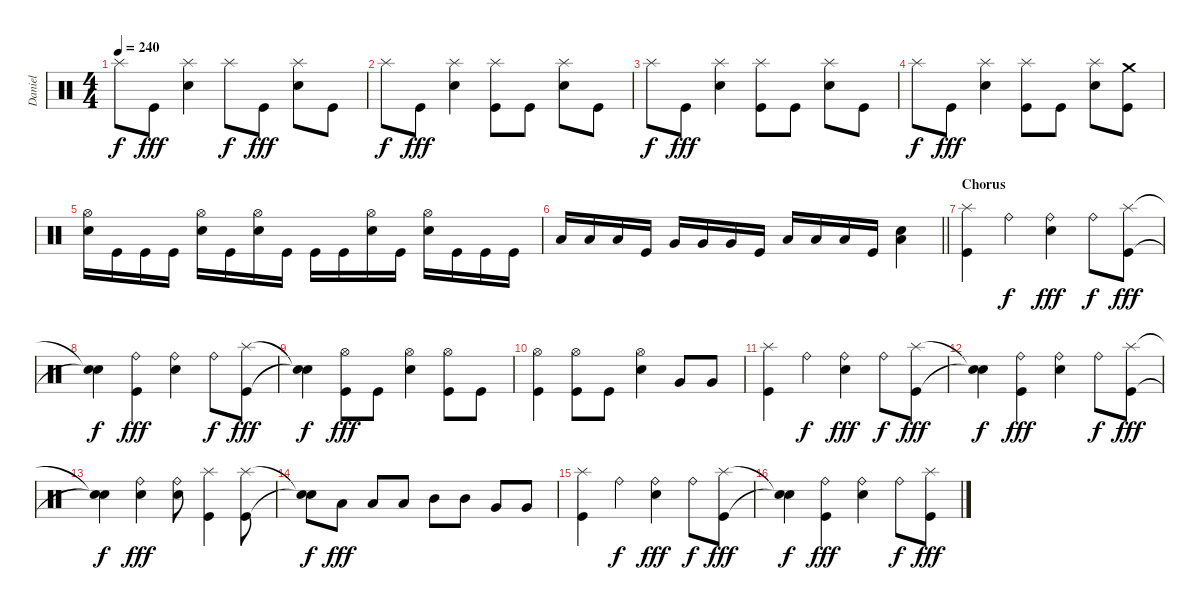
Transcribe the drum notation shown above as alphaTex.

\track ("Daniel" "Daniel") {instrument percussion}
\staff {score}
\articulation defaults
\ts (4 4)
\tempo 240
\clef neutral
\ks c "Splash (hit)".8{dy f} "Kick (hit)".8{dy fff}
("Electric Snare (hit)" "Splash (hit)").4 "Splash (hit)".8{dy f} "Kick (hit)".8{dy fff} ("Electric Snare (hit)" "Splash (hit)").8 "Kick (hit)".8 |
"Splash (hit)".8{dy f} "Kick (hit)".8{dy fff} ("Electric Snare (hit)" "Splash (hit)").4 ("Kick (hit)" "Splash (hit)").8 "Kick (hit)".8 ("Electric Snare (hit)" "Splash (hit)").8 "Kick (hit)".8 |
"Splash (hit)".8{dy f} "Kick (hit)".8{dy fff} ("Electric Snare (hit)" "Splash (hit)").4 ("Kick (hit)" "Splash (hit)").8 "Kick (hit)".8 ("Electric Snare (hit)" "Splash (hit)").8 "Kick (hit)".8 |
"Splash (hit)".8{dy f} "Kick (hit)".8{dy fff} ("Electric Snare (hit)" "Splash (hit)").4 ("Kick (hit)" "Splash (hit)").8 "Kick (hit)".8 ("Electric Snare (hit)" "Splash (hit)").8 ("Kick (hit)" "Crash medium (hit)").8 |
("Electric Snare (hit)" "Hi-Hat (open)").16 "Kick (hit)".16 "Kick (hit)".16 "Kick (hit)".16 ("Electric Snare (hit)" "Hi-Hat (open)").16 "Kick (hit)".16 ("Electric Snare (hit)" "Hi-Hat (open)").16 "Kick (hit)".16 "Kick (hit)".16 "Kick (hit)".16 ("Electric Snare (hit)" "Hi-Hat (open)").16 "Kick (hit)".16 ("Electric Snare (hit)" "Hi-Hat (open)").16 "Kick (hit)".16 "Kick (hit)".16 "Kick (hit)".16 |
\barLineRight lightlight "Low Tom (hit)".16 "Low Tom (hit)".16 "Low Tom (hit)".16 "Kick (hit)".16 "Very Low Tom (hit)".16 "Very Low Tom (hit)".16 "Very Low Tom (hit)".16 "Kick (hit)".16 "Low Floor Tom (hit)".16 "Low Floor Tom (hit)".16 "Low Floor Tom (hit)".16 "Kick (hit)".16
("Electric Snare (hit)" "Low Floor Tom (hit)").4 |
\section ("" "Chorus")
("Kick (hit)" "Splash (hit)").4 "Ride (bell)".4{dy f} ("Electric Snare (hit)" "Ride (bell)").4{dy fff} "Ride (bell)".8{dy f} ("Kick (hit)" "Splash (hit)").8{dy fff} |
("Snare (hit)"{t} "Snare (hit)"{t}).4{dy f} ("Kick (hit)" "Ride (bell)").4{dy fff} ("Electric Snare (hit)" "Ride (bell)").4 "Ride (bell)".8{dy f} ("Kick (hit)" "Splash (hit)").8{dy fff} |
("Snare (hit)"{t} "Snare (hit)"{t}).4{dy f} ("Kick (hit)" "Hi-Hat (open)").8{dy fff} "Kick (hit)".8 ("Electric Snare (hit)" "Hi-Hat (open)").4 ("Kick (hit)" "Hi-Hat (open)").8 "Kick (hit)".8 |
("Kick (hit)" "Hi-Hat (open)").4 ("Kick (hit)" "Hi-Hat (open)").8 "Kick (hit)".8 ("Electric Snare (hit)" "Hi-Hat (open)").4 "Very Low Tom (hit)".8 "Very Low Tom (hit)".8 |
("Kick (hit)" "Splash (hit)").4 "Ride (bell)".4{dy f} ("Electric Snare (hit)" "Ride (bell)").4{dy fff} "Ride (bell)".8{dy f} ("Kick (hit)" "Splash (hit)").8{dy fff} |
("Snare (hit)"{t} "Snare (hit)"{t}).4{dy f} ("Kick (hit)" "Ride (bell)").4{dy fff} ("Electric Snare (hit)" "Ride (bell)").4 "Ride (bell)".8{dy f} ("Kick (hit)" "Splash (hit)").8{dy fff} |
("Snare (hit)"{t} "Snare (hit)"{t}).4{dy f} ("Electric Snare (hit)" "Ride (bell)").4{dy fff} ("Electric Snare (hit)" "Ride (bell)").8 ("Kick (hit)" "Splash (hit)").4 ("Kick (hit)" "Splash (hit)").8 |
("Snare (hit)"{t} "Snare (hit)"{t}).8{dy f} "Low Tom (hit)".8{dy fff} "Low Tom (hit)".8 "Low Tom (hit)".8 "Mid Tom (hit)".8 "Mid Tom (hit)".8 "Very Low Tom (hit)".8 "Very Low Tom (hit)".8 |
("Kick (hit)" "Splash (hit)").4 "Ride (bell)".4{dy f} ("Electric Snare (hit)" "Ride (bell)").4{dy fff} "Ride (bell)".8{dy f} ("Kick (hit)" "Splash (hit)").8{dy fff} |
("Snare (hit)"{t} "Snare (hit)"{t}).4{dy f} ("Kick (hit)" "Ride (bell)").4{dy fff} ("Electric Snare (hit)" "Ride (bell)").4 "Ride (bell)".8{dy f} ("Kick (hit)" "Splash (hit)").8{dy fff}
